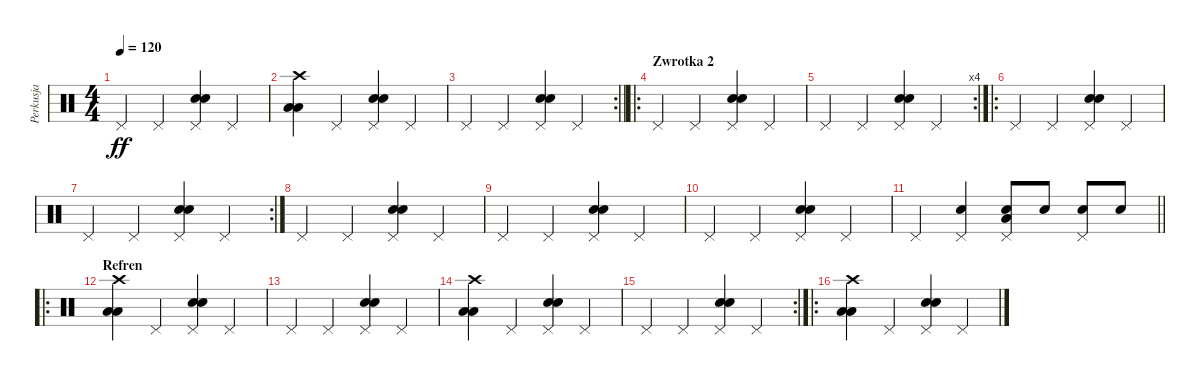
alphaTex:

\track ("Perkusja" "Perkusja") {instrument percussion}
\staff {score}
\articulation defaults
\ts (4 4)
\tempo 120
\clef neutral
\ks c "Pedal Hi-Hat (hit)".4{dy ff} "Pedal Hi-Hat (hit)".4
("Pedal Hi-Hat (hit)" "Snare (hit) 2" "Snare (hit) 2").4 "Pedal Hi-Hat (hit)".4 |
("Low Tom (hit)" "Low Tom (hit)" "Crash high (hit)").4 "Pedal Hi-Hat (hit)".4 ("Pedal Hi-Hat (hit)" "Snare (hit) 2" "Snare (hit) 2").4 "Pedal Hi-Hat (hit)".4 |
\rc 2
\barLineRight lightlight "Pedal Hi-Hat (hit)".4 "Pedal Hi-Hat (hit)".4
("Pedal Hi-Hat (hit)" "Snare (hit) 2" "Snare (hit) 2").4 "Pedal Hi-Hat (hit)".4 |
\ro
\section ("" "Zwrotka 2")
"Pedal Hi-Hat (hit)".4 "Pedal Hi-Hat (hit)".4 ("Pedal Hi-Hat (hit)" "Snare (hit) 2" "Snare (hit) 2").4 "Pedal Hi-Hat (hit)".4 |
\rc 4 "Pedal Hi-Hat (hit)".4 "Pedal Hi-Hat (hit)".4
("Pedal Hi-Hat (hit)" "Snare (hit) 2" "Snare (hit) 2").4 "Pedal Hi-Hat (hit)".4 |
\ro "Pedal Hi-Hat (hit)".4 "Pedal Hi-Hat (hit)".4
("Pedal Hi-Hat (hit)" "Snare (hit) 2" "Snare (hit) 2").4 "Pedal Hi-Hat (hit)".4 |
\rc 2 "Pedal Hi-Hat (hit)".4 "Pedal Hi-Hat (hit)".4
("Pedal Hi-Hat (hit)" "Snare (hit) 2" "Snare (hit) 2").4 "Pedal Hi-Hat (hit)".4 |
"Pedal Hi-Hat (hit)".4 "Pedal Hi-Hat (hit)".4 ("Pedal Hi-Hat (hit)" "Snare (hit) 2" "Snare (hit) 2").4 "Pedal Hi-Hat (hit)".4 |
"Pedal Hi-Hat (hit)".4 "Pedal Hi-Hat (hit)".4 ("Pedal Hi-Hat (hit)" "Snare (hit) 2" "Snare (hit) 2").4 "Pedal Hi-Hat (hit)".4 |
"Pedal Hi-Hat (hit)".4 "Pedal Hi-Hat (hit)".4 ("Pedal Hi-Hat (hit)" "Snare (hit) 2" "Snare (hit) 2").4 "Pedal Hi-Hat (hit)".4 |
\barLineRight lightlight "Pedal Hi-Hat (hit)".4
("Pedal Hi-Hat (hit)" "Snare (hit) 2").4 ("Pedal Hi-Hat (hit)" "Low Tom (hit)" "Snare (hit) 2").8 "Snare (hit) 2".8 ("Pedal Hi-Hat (hit)" "Snare (hit) 2").8 "Snare (hit) 2".8 |
\ro
\section ("" "Refren")
("Low Tom (hit)" "Low Tom (hit)" "Crash high (hit)").4 "Pedal Hi-Hat (hit)".4 ("Pedal Hi-Hat (hit)" "Snare (hit) 2" "Snare (hit) 2").4 "Pedal Hi-Hat (hit)".4 |
"Pedal Hi-Hat (hit)".4 "Pedal Hi-Hat (hit)".4 ("Pedal Hi-Hat (hit)" "Snare (hit) 2" "Snare (hit) 2").4 "Pedal Hi-Hat (hit)".4 |
("Low Tom (hit)" "Low Tom (hit)" "Crash high (hit)").4 "Pedal Hi-Hat (hit)".4 ("Pedal Hi-Hat (hit)" "Snare (hit) 2" "Snare (hit) 2").4 "Pedal Hi-Hat (hit)".4 |
\rc 2 "Pedal Hi-Hat (hit)".4 "Pedal Hi-Hat (hit)".4
("Pedal Hi-Hat (hit)" "Snare (hit) 2" "Snare (hit) 2").4 "Pedal Hi-Hat (hit)".4 |
\ro
("Low Tom (hit)" "Low Tom (hit)" "Crash high (hit)").4 "Pedal Hi-Hat (hit)".4 ("Pedal Hi-Hat (hit)" "Snare (hit) 2" "Snare (hit) 2").4 "Pedal Hi-Hat (hit)".4
